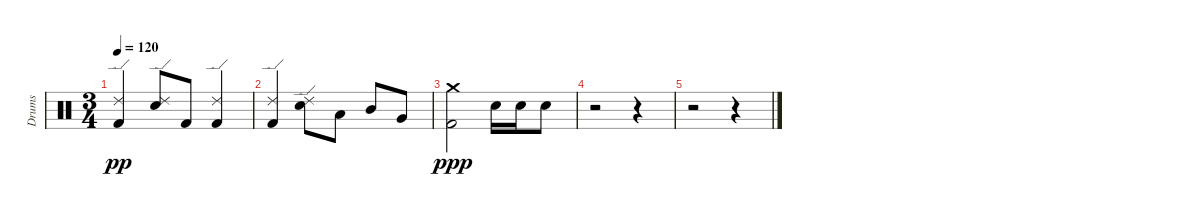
\track ("Drums" "Drums") {instrument percussion}
\staff {score}
\articulation defaults
\ts (3 4)
\tempo 120
\clef neutral
\ks c
("Kick (hit) 2" "Ride (edge) 2").4{dy pp} ("Snare (hit) 2" "Ride (edge) 2").8 "Kick (hit) 2".8 ("Kick (hit) 2" "Ride (edge) 2").4 |
("Kick (hit) 2" "Ride (edge) 2").4 ("Snare (hit) 2" "Ride (edge) 2").8 "Low Tom (hit)".8 "Mid Tom (hit)".8 "Very Low Tom (hit)".8 |
("Kick (hit) 2" "Crash medium (hit)").2{dy ppp} "Snare (hit) 2".16 "Snare (hit) 2".16 "Snare (hit) 2".8 |
r.2 r.4 |
r.2 r.4
